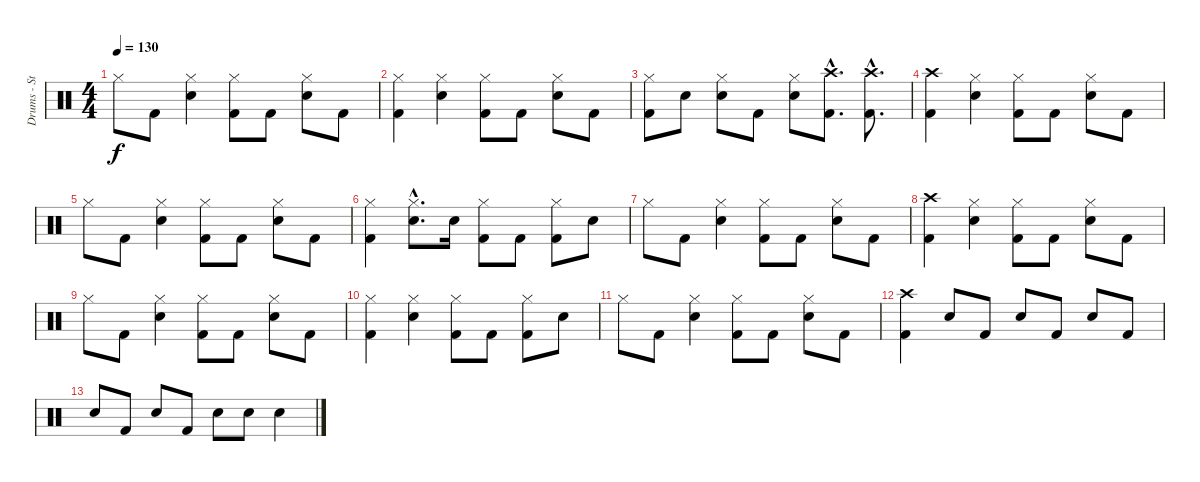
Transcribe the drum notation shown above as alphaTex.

\track ("Drums - Steven" "Drums - St") {instrument percussion}
\staff {score}
\articulation defaults
\ts (4 4)
\tempo 130
\clef neutral
\ks c "Hi-Hat (closed)".8{dy f} "Kick (hit) 2".8
("Electric Snare (hit)" "Hi-Hat (closed)").4 ("Kick (hit) 2" "Hi-Hat (closed)").8 "Kick (hit) 2".8 ("Electric Snare (hit)" "Hi-Hat (closed)").8 "Kick (hit) 2".8 |
("Kick (hit) 2" "Hi-Hat (closed)").4 ("Electric Snare (hit)" "Hi-Hat (closed)").4 ("Kick (hit) 2" "Hi-Hat (closed)").8 "Kick (hit) 2".8 ("Electric Snare (hit)" "Hi-Hat (closed)").8 "Kick (hit) 2".8 |
("Kick (hit) 2" "Hi-Hat (closed)").8 "Electric Snare (hit)".8 ("Electric Snare (hit)" "Hi-Hat (closed)").8 "Kick (hit) 2".8 ("Electric Snare (hit)" "Hi-Hat (closed)").8 ("Kick (hit) 2"{hac} "Crash high (hit)"{hac}).8{d} ("Kick (hit) 2"{hac} "Crash high (hit)"{hac}).8{d} |
("Kick (hit) 2" "Crash high (hit)").4 ("Electric Snare (hit)" "Hi-Hat (closed)").4 ("Kick (hit) 2" "Hi-Hat (closed)").8 "Kick (hit) 2".8 ("Electric Snare (hit)" "Hi-Hat (closed)").8 "Kick (hit) 2".8 |
"Hi-Hat (closed)".8 "Kick (hit) 2".8 ("Electric Snare (hit)" "Hi-Hat (closed)").4 ("Kick (hit) 2" "Hi-Hat (closed)").8 "Kick (hit) 2".8 ("Electric Snare (hit)" "Hi-Hat (closed)").8 "Kick (hit) 2".8 |
("Kick (hit) 2" "Hi-Hat (closed)").4 ("Electric Snare (hit)"{hac} "Hi-Hat (closed)"{hac}).8{d} "Electric Snare (hit)".16 ("Kick (hit) 2" "Hi-Hat (closed)").8 "Kick (hit) 2".8 ("Kick (hit) 2" "Hi-Hat (closed)").8 "Electric Snare (hit)".8 |
"Hi-Hat (closed)".8 "Kick (hit) 2".8 ("Electric Snare (hit)" "Hi-Hat (closed)").4 ("Kick (hit) 2" "Hi-Hat (closed)").8 "Kick (hit) 2".8 ("Electric Snare (hit)" "Hi-Hat (closed)").8 "Kick (hit) 2".8 |
("Kick (hit) 2" "Crash high (hit)").4 ("Electric Snare (hit)" "Hi-Hat (closed)").4 ("Kick (hit) 2" "Hi-Hat (closed)").8 "Kick (hit) 2".8 ("Electric Snare (hit)" "Hi-Hat (closed)").8 "Kick (hit) 2".8 |
"Hi-Hat (closed)".8 "Kick (hit) 2".8 ("Electric Snare (hit)" "Hi-Hat (closed)").4 ("Kick (hit) 2" "Hi-Hat (closed)").8 "Kick (hit) 2".8 ("Electric Snare (hit)" "Hi-Hat (closed)").8 "Kick (hit) 2".8 |
("Kick (hit) 2" "Hi-Hat (closed)").4 ("Electric Snare (hit)" "Hi-Hat (closed)").4 ("Kick (hit) 2" "Hi-Hat (closed)").8 "Kick (hit) 2".8 ("Kick (hit) 2" "Hi-Hat (closed)").8 "Electric Snare (hit)".8 |
"Hi-Hat (closed)".8 "Kick (hit) 2".8 ("Electric Snare (hit)" "Hi-Hat (closed)").4 ("Kick (hit) 2" "Hi-Hat (closed)").8 "Kick (hit) 2".8 ("Electric Snare (hit)" "Hi-Hat (closed)").8 "Kick (hit) 2".8 |
("Kick (hit) 2" "Crash high (hit)").4 "Electric Snare (hit)".8 "Kick (hit) 2".8 "Electric Snare (hit)".8 "Kick (hit) 2".8 "Electric Snare (hit)".8 "Kick (hit) 2".8 |
"Electric Snare (hit)".8 "Kick (hit) 2".8 "Electric Snare (hit)".8 "Kick (hit) 2".8 "Electric Snare (hit)".8 "Electric Snare (hit)".8 "Electric Snare (hit)".4
